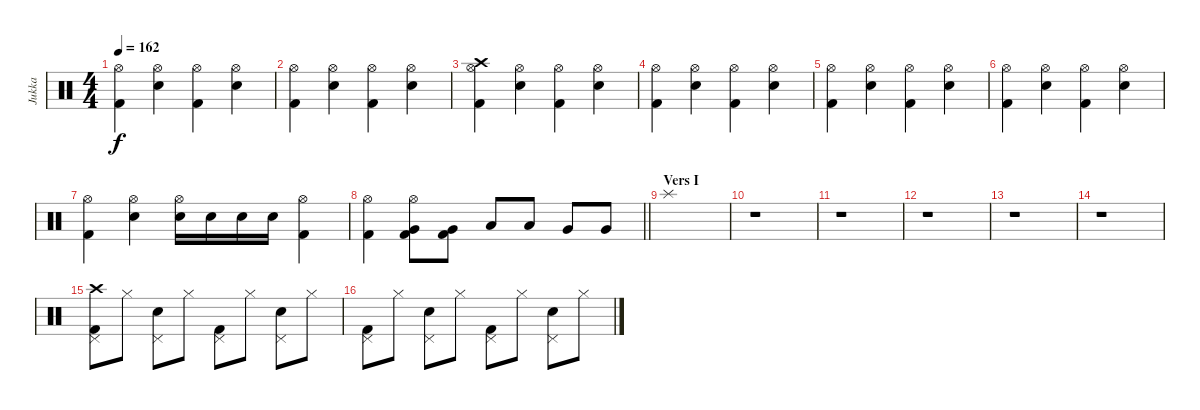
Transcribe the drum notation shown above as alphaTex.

\track ("Jukka" "Jukka") {instrument percussion}
\staff {score}
\articulation defaults
\ts (4 4)
\tempo 162
\clef neutral
\ks c
("Hi-Hat (open)" "Kick (hit) 2").4{dy f} ("Hi-Hat (open)" "Electric Snare (hit)").4 ("Hi-Hat (open)" "Kick (hit) 2").4 ("Hi-Hat (open)" "Electric Snare (hit)").4 |
("Hi-Hat (open)" "Kick (hit) 2").4 ("Hi-Hat (open)" "Electric Snare (hit)").4 ("Hi-Hat (open)" "Kick (hit) 2").4 ("Hi-Hat (open)" "Electric Snare (hit)").4 |
("Crash high (hit)" "Hi-Hat (open)" "Kick (hit) 2").4 ("Hi-Hat (open)" "Electric Snare (hit)").4 ("Hi-Hat (open)" "Kick (hit) 2").4 ("Hi-Hat (open)" "Electric Snare (hit)").4 |
("Hi-Hat (open)" "Kick (hit) 2").4 ("Hi-Hat (open)" "Electric Snare (hit)").4 ("Hi-Hat (open)" "Kick (hit) 2").4 ("Hi-Hat (open)" "Electric Snare (hit)").4 |
("Hi-Hat (open)" "Kick (hit) 2").4 ("Hi-Hat (open)" "Electric Snare (hit)").4 ("Hi-Hat (open)" "Kick (hit) 2").4 ("Hi-Hat (open)" "Electric Snare (hit)").4 |
("Hi-Hat (open)" "Kick (hit) 2").4 ("Hi-Hat (open)" "Electric Snare (hit)").4 ("Hi-Hat (open)" "Kick (hit) 2").4 ("Hi-Hat (open)" "Electric Snare (hit)").4 |
("Hi-Hat (open)" "Kick (hit) 2").4 ("Hi-Hat (open)" "Electric Snare (hit)").4 ("Hi-Hat (open)" "Electric Snare (hit)").16 "Electric Snare (hit)".16 "Electric Snare (hit)".16 "Electric Snare (hit)".16 ("Hi-Hat (open)" "Kick (hit) 2").4 |
\barLineRight lightlight
("Hi-Hat (open)" "Kick (hit) 2").4 ("Hi-Hat (open)" "Very Low Tom (hit)" "Kick (hit) 2").8 ("Very Low Tom (hit)" "Kick (hit) 2").8 "Low Floor Tom (hit)".8 "Low Floor Tom (hit)".8 "Very Low Tom (hit)".8 "Very Low Tom (hit)".8 |
\section ("" "Vers I")
"Splash (hit)".1 |
r.1 |
r.1 |
r.1 |
r.1 |
r.1 |
("Crash high (hit)" "Pedal Hi-Hat (hit)" "Kick (hit) 2").8 "Hi-Hat (closed)".8 ("Pedal Hi-Hat (hit)" "Electric Snare (hit)").8 "Hi-Hat (closed)".8 ("Pedal Hi-Hat (hit)" "Kick (hit) 2").8 "Hi-Hat (closed)".8 ("Pedal Hi-Hat (hit)" "Electric Snare (hit)").8 "Hi-Hat (closed)".8 |
("Pedal Hi-Hat (hit)" "Kick (hit) 2").8 "Hi-Hat (closed)".8 ("Pedal Hi-Hat (hit)" "Electric Snare (hit)").8 "Hi-Hat (closed)".8 ("Pedal Hi-Hat (hit)" "Kick (hit) 2").8 "Hi-Hat (closed)".8 ("Pedal Hi-Hat (hit)" "Electric Snare (hit)").8 "Hi-Hat (closed)".8
